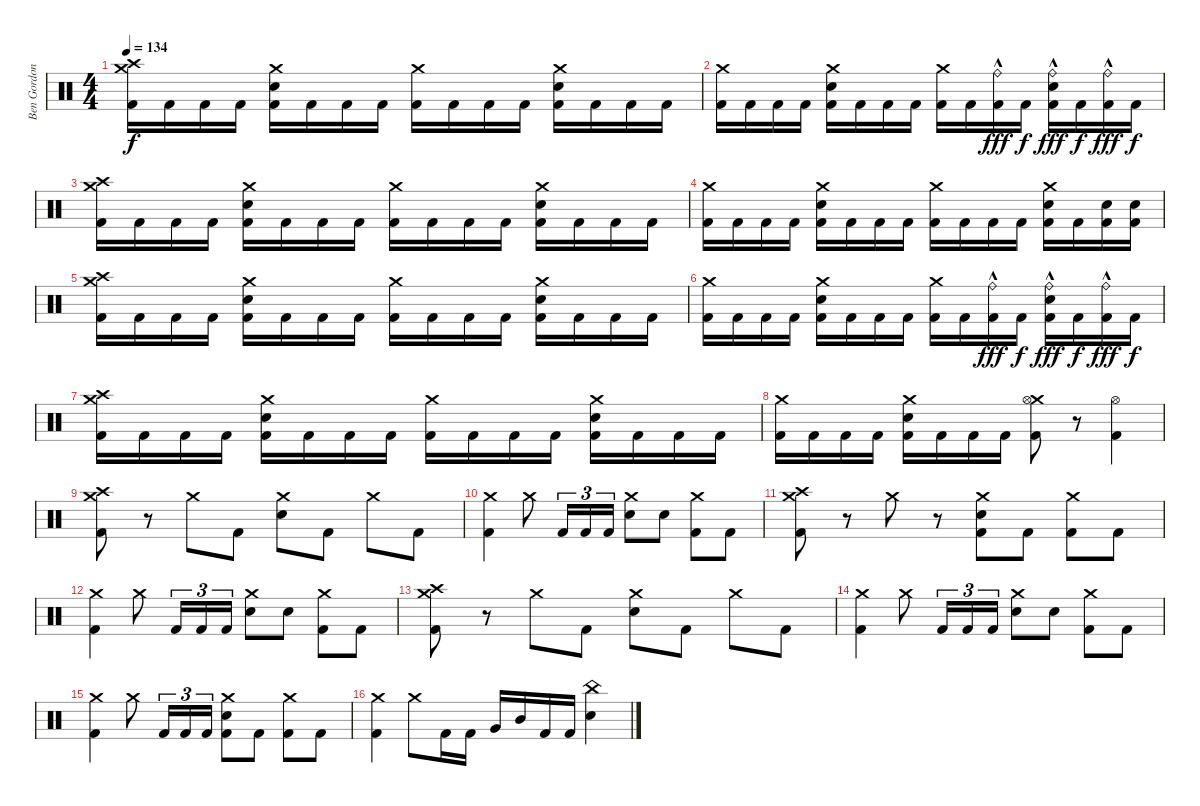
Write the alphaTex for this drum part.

\track ("Ben Gordon" "Ben Gordon") {instrument percussion}
\staff {score}
\articulation defaults
\ts (4 4)
\tempo 134
\clef neutral
\ks c
("Crash medium (hit)" "Crash high (hit)" "Kick (hit) 2").16{dy f} "Kick (hit) 2".16 "Kick (hit) 2".16 "Kick (hit) 2".16 ("Crash medium (hit)" "Electric Snare (hit)" "Kick (hit) 2").16 "Kick (hit) 2".16 "Kick (hit) 2".16 "Kick (hit) 2".16 ("Crash medium (hit)" "Kick (hit) 2").16 "Kick (hit) 2".16 "Kick (hit) 2".16 "Kick (hit) 2".16 ("Crash medium (hit)" "Electric Snare (hit)" "Kick (hit) 2").16 "Kick (hit) 2".16 "Kick (hit) 2".16 "Kick (hit) 2".16 |
("Crash medium (hit)" "Kick (hit) 2").16 "Kick (hit) 2".16 "Kick (hit) 2".16 "Kick (hit) 2".16 ("Crash medium (hit)" "Electric Snare (hit)" "Kick (hit) 2").16 "Kick (hit) 2".16 "Kick (hit) 2".16 "Kick (hit) 2".16 ("Crash medium (hit)" "Kick (hit) 2").16 "Kick (hit) 2".16 ("Ride (bell)"{hac} "Kick (hit) 2").16{dy fff} "Kick (hit) 2".16{dy f} ("Ride (bell)"{hac} "Electric Snare (hit)" "Kick (hit) 2").16{dy fff} "Kick (hit) 2".16{dy f} ("Ride (bell)"{hac} "Kick (hit) 2").16{dy fff} "Kick (hit) 2".16{dy f} |
("Crash medium (hit)" "Crash high (hit)" "Kick (hit) 2").16 "Kick (hit) 2".16 "Kick (hit) 2".16 "Kick (hit) 2".16 ("Crash medium (hit)" "Electric Snare (hit)" "Kick (hit) 2").16 "Kick (hit) 2".16 "Kick (hit) 2".16 "Kick (hit) 2".16 ("Crash medium (hit)" "Kick (hit) 2").16 "Kick (hit) 2".16 "Kick (hit) 2".16 "Kick (hit) 2".16 ("Crash medium (hit)" "Electric Snare (hit)" "Kick (hit) 2").16 "Kick (hit) 2".16 "Kick (hit) 2".16 "Kick (hit) 2".16 |
("Crash medium (hit)" "Kick (hit) 2").16 "Kick (hit) 2".16 "Kick (hit) 2".16 "Kick (hit) 2".16 ("Crash medium (hit)" "Electric Snare (hit)" "Kick (hit) 2").16 "Kick (hit) 2".16 "Kick (hit) 2".16 "Kick (hit) 2".16 ("Crash medium (hit)" "Kick (hit) 2").16 "Kick (hit) 2".16 "Kick (hit) 2".16 "Kick (hit) 2".16 ("Crash medium (hit)" "Electric Snare (hit)" "Kick (hit) 2").16 "Kick (hit) 2".16 ("Electric Snare (hit)" "Kick (hit) 2").16 ("Electric Snare (hit)" "Kick (hit) 2").16 |
("Crash medium (hit)" "Crash high (hit)" "Kick (hit) 2").16 "Kick (hit) 2".16 "Kick (hit) 2".16 "Kick (hit) 2".16 ("Crash medium (hit)" "Electric Snare (hit)" "Kick (hit) 2").16 "Kick (hit) 2".16 "Kick (hit) 2".16 "Kick (hit) 2".16 ("Crash medium (hit)" "Kick (hit) 2").16 "Kick (hit) 2".16 "Kick (hit) 2".16 "Kick (hit) 2".16 ("Crash medium (hit)" "Electric Snare (hit)" "Kick (hit) 2").16 "Kick (hit) 2".16 "Kick (hit) 2".16 "Kick (hit) 2".16 |
("Crash medium (hit)" "Kick (hit) 2").16 "Kick (hit) 2".16 "Kick (hit) 2".16 "Kick (hit) 2".16 ("Crash medium (hit)" "Electric Snare (hit)" "Kick (hit) 2").16 "Kick (hit) 2".16 "Kick (hit) 2".16 "Kick (hit) 2".16 ("Crash medium (hit)" "Kick (hit) 2").16 "Kick (hit) 2".16 ("Ride (bell)"{hac} "Kick (hit) 2").16{dy fff} "Kick (hit) 2".16{dy f} ("Ride (bell)"{hac} "Electric Snare (hit)" "Kick (hit) 2").16{dy fff} "Kick (hit) 2".16{dy f} ("Ride (bell)"{hac} "Kick (hit) 2").16{dy fff} "Kick (hit) 2".16{dy f} |
("Crash medium (hit)" "Crash high (hit)" "Kick (hit) 2").16 "Kick (hit) 2".16 "Kick (hit) 2".16 "Kick (hit) 2".16 ("Crash medium (hit)" "Electric Snare (hit)" "Kick (hit) 2").16 "Kick (hit) 2".16 "Kick (hit) 2".16 "Kick (hit) 2".16 ("Crash medium (hit)" "Kick (hit) 2").16 "Kick (hit) 2".16 "Kick (hit) 2".16 "Kick (hit) 2".16 ("Crash medium (hit)" "Electric Snare (hit)" "Kick (hit) 2").16 "Kick (hit) 2".16 "Kick (hit) 2".16 "Kick (hit) 2".16 |
("Crash medium (hit)" "Kick (hit) 2").16 "Kick (hit) 2".16 "Kick (hit) 2".16 "Kick (hit) 2".16 ("Crash medium (hit)" "Electric Snare (hit)" "Kick (hit) 2").16 "Kick (hit) 2".16 "Kick (hit) 2".16 "Kick (hit) 2".16 ("Crash medium (hit)" "Hi-Hat (open)" "Kick (hit) 2").8 r.8 ("Hi-Hat (open)" "Kick (hit) 2").4 |
("Crash medium (hit)" "Crash high (hit)" "Kick (hit) 2").8 r.8 "Crash medium (hit)".8 "Kick (hit) 2".8 ("Crash medium (hit)" "Electric Snare (hit)").8 "Kick (hit) 2".8 "Crash medium (hit)".8 "Kick (hit) 2".8 |
("Crash medium (hit)" "Kick (hit) 2").4 "Crash medium (hit)".8 "Kick (hit) 2".16{tu (3 2)} "Kick (hit) 2".16{tu (3 2)} "Kick (hit) 2".16{tu (3 2)} ("Crash medium (hit)" "Electric Snare (hit)").8 "Electric Snare (hit)".8 ("Crash medium (hit)" "Kick (hit) 2").8 "Kick (hit) 2".8 |
("Crash medium (hit)" "Crash high (hit)" "Kick (hit) 2").8 r.8 "Crash medium (hit)".8 r.8 ("Crash medium (hit)" "Electric Snare (hit)" "Kick (hit) 2").8 "Kick (hit) 2".8 ("Crash medium (hit)" "Kick (hit) 2").8 "Kick (hit) 2".8 |
("Crash medium (hit)" "Kick (hit) 2").4 "Crash medium (hit)".8 "Kick (hit) 2".16{tu (3 2)} "Kick (hit) 2".16{tu (3 2)} "Kick (hit) 2".16{tu (3 2)} ("Crash medium (hit)" "Electric Snare (hit)").8 "Electric Snare (hit)".8 ("Crash medium (hit)" "Kick (hit) 2").8 "Kick (hit) 2".8 |
("Crash medium (hit)" "Crash high (hit)" "Kick (hit) 2").8 r.8 "Crash medium (hit)".8 "Kick (hit) 2".8 ("Crash medium (hit)" "Electric Snare (hit)").8 "Kick (hit) 2".8 "Crash medium (hit)".8 "Kick (hit) 2".8 |
("Crash medium (hit)" "Kick (hit) 2").4 "Crash medium (hit)".8 "Kick (hit) 2".16{tu (3 2)} "Kick (hit) 2".16{tu (3 2)} "Kick (hit) 2".16{tu (3 2)} ("Crash medium (hit)" "Electric Snare (hit)").8 "Electric Snare (hit)".8 ("Crash medium (hit)" "Kick (hit) 2").8 "Kick (hit) 2".8 |
("Crash medium (hit)" "Kick (hit) 2").4 "Crash medium (hit)".8 "Kick (hit) 2".16{tu (3 2)} "Kick (hit) 2".16{tu (3 2)} "Kick (hit) 2".16{tu (3 2)} ("Crash medium (hit)" "Electric Snare (hit)" "Kick (hit) 2").8 "Kick (hit) 2".8 ("Crash medium (hit)" "Kick (hit) 2").8 "Kick (hit) 2".8 |
("Crash medium (hit)" "Kick (hit) 2").4 "Crash medium (hit)".8 "Kick (hit) 2".16 "Kick (hit) 2".16 "Very Low Tom (hit)".16 "Mid Tom (hit)".16 "Kick (hit) 2".16 "Kick (hit) 2".16 ("China (hit)" "Electric Snare (hit)").4
